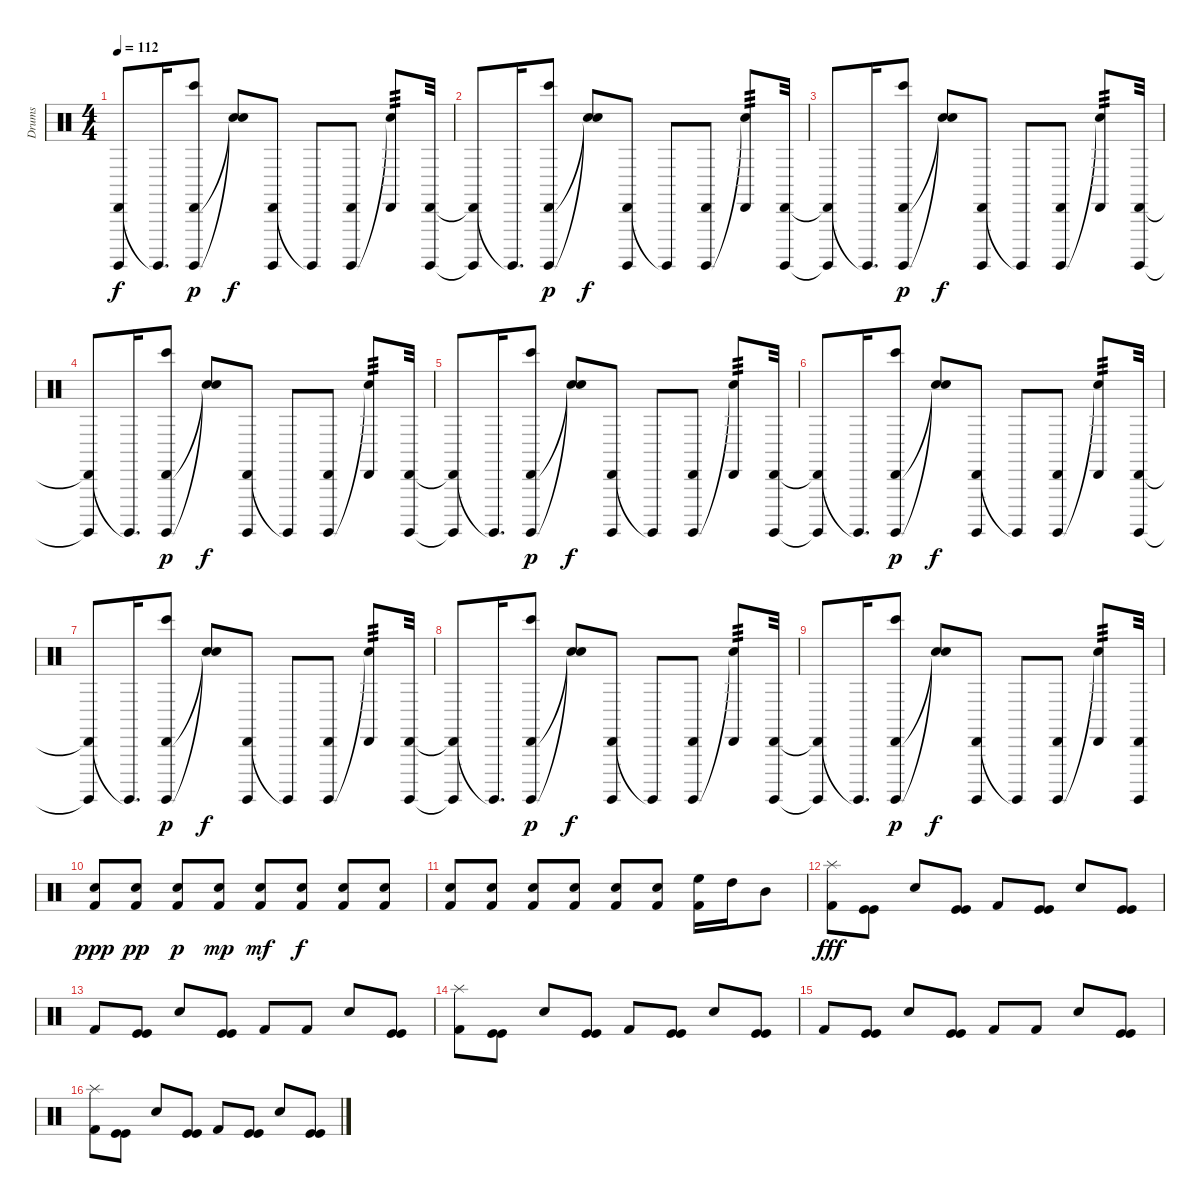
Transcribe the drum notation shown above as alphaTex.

\track ("Drums" "Drums") {instrument percussion}
\staff {score}
\articulation defaults
\ts (4 4)
\tempo 112
\clef neutral
\ks c
("Cabasa (hit)"{t} "Surdo (hit)"{t}).8{dy f} "Surdo (hit)"{t}.16{d} ("Cabasa (hit)" "Surdo (hit)" "Bongo High (hit)").8{dy p} ("Snare (hit)"{t} "Snare (hit)"{t}).8{dy f} ("Cabasa (hit)" "Surdo (hit)").8 "Surdo (hit)"{t}.8 ("Cabasa (hit)" "Surdo (hit)").8 ("Cabasa (hit)" "Snare (hit)"{t}).8{tp 3} ("Cabasa (hit)" "Surdo (hit)").32 |
("Cabasa (hit)"{t} "Surdo (hit)"{t}).8 "Surdo (hit)"{t}.16{d} ("Cabasa (hit)" "Surdo (hit)" "Bongo High (hit)").8{dy p} ("Snare (hit)"{t} "Snare (hit)"{t}).8{dy f} ("Cabasa (hit)" "Surdo (hit)").8 "Surdo (hit)"{t}.8 ("Cabasa (hit)" "Surdo (hit)").8 ("Cabasa (hit)" "Snare (hit)"{t}).8{tp 3} ("Cabasa (hit)" "Surdo (hit)").32 |
("Cabasa (hit)"{t} "Surdo (hit)"{t}).8 "Surdo (hit)"{t}.16{d} ("Cabasa (hit)" "Surdo (hit)" "Bongo High (hit)").8{dy p} ("Snare (hit)"{t} "Snare (hit)"{t}).8{dy f} ("Cabasa (hit)" "Surdo (hit)").8 "Surdo (hit)"{t}.8 ("Cabasa (hit)" "Surdo (hit)").8 ("Cabasa (hit)" "Snare (hit)"{t}).8{tp 3} ("Cabasa (hit)" "Surdo (hit)").32 |
("Cabasa (hit)"{t} "Surdo (hit)"{t}).8 "Surdo (hit)"{t}.16{d} ("Cabasa (hit)" "Surdo (hit)" "Bongo High (hit)").8{dy p} ("Snare (hit)"{t} "Snare (hit)"{t}).8{dy f} ("Cabasa (hit)" "Surdo (hit)").8 "Surdo (hit)"{t}.8 ("Cabasa (hit)" "Surdo (hit)").8 ("Cabasa (hit)" "Snare (hit)"{t}).8{tp 3} ("Cabasa (hit)" "Surdo (hit)").32 |
("Cabasa (hit)"{t} "Surdo (hit)"{t}).8 "Surdo (hit)"{t}.16{d} ("Cabasa (hit)" "Surdo (hit)" "Bongo High (hit)").8{dy p} ("Snare (hit)"{t} "Snare (hit)"{t}).8{dy f} ("Cabasa (hit)" "Surdo (hit)").8 "Surdo (hit)"{t}.8 ("Cabasa (hit)" "Surdo (hit)").8 ("Cabasa (hit)" "Snare (hit)"{t}).8{tp 3} ("Cabasa (hit)" "Surdo (hit)").32 |
("Cabasa (hit)"{t} "Surdo (hit)"{t}).8 "Surdo (hit)"{t}.16{d} ("Cabasa (hit)" "Surdo (hit)" "Bongo High (hit)").8{dy p} ("Snare (hit)"{t} "Snare (hit)"{t}).8{dy f} ("Cabasa (hit)" "Surdo (hit)").8 "Surdo (hit)"{t}.8 ("Cabasa (hit)" "Surdo (hit)").8 ("Cabasa (hit)" "Snare (hit)"{t}).8{tp 3} ("Cabasa (hit)" "Surdo (hit)").32 |
("Cabasa (hit)"{t} "Surdo (hit)"{t}).8 "Surdo (hit)"{t}.16{d} ("Cabasa (hit)" "Surdo (hit)" "Bongo High (hit)").8{dy p} ("Snare (hit)"{t} "Snare (hit)"{t}).8{dy f} ("Cabasa (hit)" "Surdo (hit)").8 "Surdo (hit)"{t}.8 ("Cabasa (hit)" "Surdo (hit)").8 ("Cabasa (hit)" "Snare (hit)"{t}).8{tp 3} ("Cabasa (hit)" "Surdo (hit)").32 |
("Cabasa (hit)"{t} "Surdo (hit)"{t}).8 "Surdo (hit)"{t}.16{d} ("Cabasa (hit)" "Surdo (hit)" "Bongo High (hit)").8{dy p} ("Snare (hit)"{t} "Snare (hit)"{t}).8{dy f} ("Cabasa (hit)" "Surdo (hit)").8 "Surdo (hit)"{t}.8 ("Cabasa (hit)" "Surdo (hit)").8 ("Cabasa (hit)" "Snare (hit)"{t}).8{tp 3} ("Cabasa (hit)" "Surdo (hit)").32 |
("Cabasa (hit)"{t} "Surdo (hit)"{t}).8 "Surdo (hit)"{t}.16{d} ("Cabasa (hit)" "Surdo (hit)" "Bongo High (hit)").8{dy p} ("Snare (hit)"{t} "Snare (hit)"{t}).8{dy f} ("Cabasa (hit)" "Surdo (hit)").8 "Surdo (hit)"{t}.8 ("Cabasa (hit)" "Surdo (hit)").8 ("Cabasa (hit)" "Snare (hit)"{t}).8{tp 3} ("Cabasa (hit)" "Surdo (hit)").32 |
("Kick (hit) 2" "Snare (hit) 2").8{dy ppp} ("Kick (hit) 2" "Snare (hit) 2").8{dy pp} ("Kick (hit) 2" "Snare (hit) 2").8{dy p} ("Kick (hit) 2" "Snare (hit) 2").8{dy mp} ("Kick (hit) 2" "Snare (hit) 2").8{dy mf} ("Kick (hit) 2" "Snare (hit) 2").8{dy f} ("Kick (hit) 2" "Snare (hit) 2").8 ("Kick (hit) 2" "Snare (hit) 2").8 |
("Kick (hit) 2" "Snare (hit) 2").8 ("Kick (hit) 2" "Snare (hit) 2").8 ("Kick (hit) 2" "Snare (hit) 2").8 ("Kick (hit) 2" "Snare (hit) 2").8 ("Kick (hit) 2" "Snare (hit) 2").8 ("Kick (hit) 2" "Snare (hit) 2").8 ("Kick (hit) 2" "High Floor Tom (hit)").16 "High Tom (hit)".16 "Mid Tom (hit)".8 |
("Kick (hit) 2" "Splash (hit)").8{dy fff} ("Kick (hit)" "Kick (hit)").8 "Snare (hit) 2".8 ("Kick (hit)" "Kick (hit)").8 "Kick (hit) 2".8 ("Kick (hit)" "Kick (hit)").8 "Snare (hit) 2".8 ("Kick (hit)" "Kick (hit)").8 |
"Kick (hit) 2".8 ("Kick (hit)" "Kick (hit)").8 "Snare (hit) 2".8 ("Kick (hit)" "Kick (hit)").8 "Kick (hit) 2".8 "Kick (hit) 2".8 "Snare (hit) 2".8 ("Kick (hit)" "Kick (hit)").8 |
("Kick (hit) 2" "Splash (hit)").8 ("Kick (hit)" "Kick (hit)").8 "Snare (hit) 2".8 ("Kick (hit)" "Kick (hit)").8 "Kick (hit) 2".8 ("Kick (hit)" "Kick (hit)").8 "Snare (hit) 2".8 ("Kick (hit)" "Kick (hit)").8 |
"Kick (hit) 2".8 ("Kick (hit)" "Kick (hit)").8 "Snare (hit) 2".8 ("Kick (hit)" "Kick (hit)").8 "Kick (hit) 2".8 "Kick (hit) 2".8 "Snare (hit) 2".8 ("Kick (hit)" "Kick (hit)").8 |
("Kick (hit) 2" "Splash (hit)").8 ("Kick (hit)" "Kick (hit)").8 "Snare (hit) 2".8 ("Kick (hit)" "Kick (hit)").8 "Kick (hit) 2".8 ("Kick (hit)" "Kick (hit)").8 "Snare (hit) 2".8 ("Kick (hit)" "Kick (hit)").8
